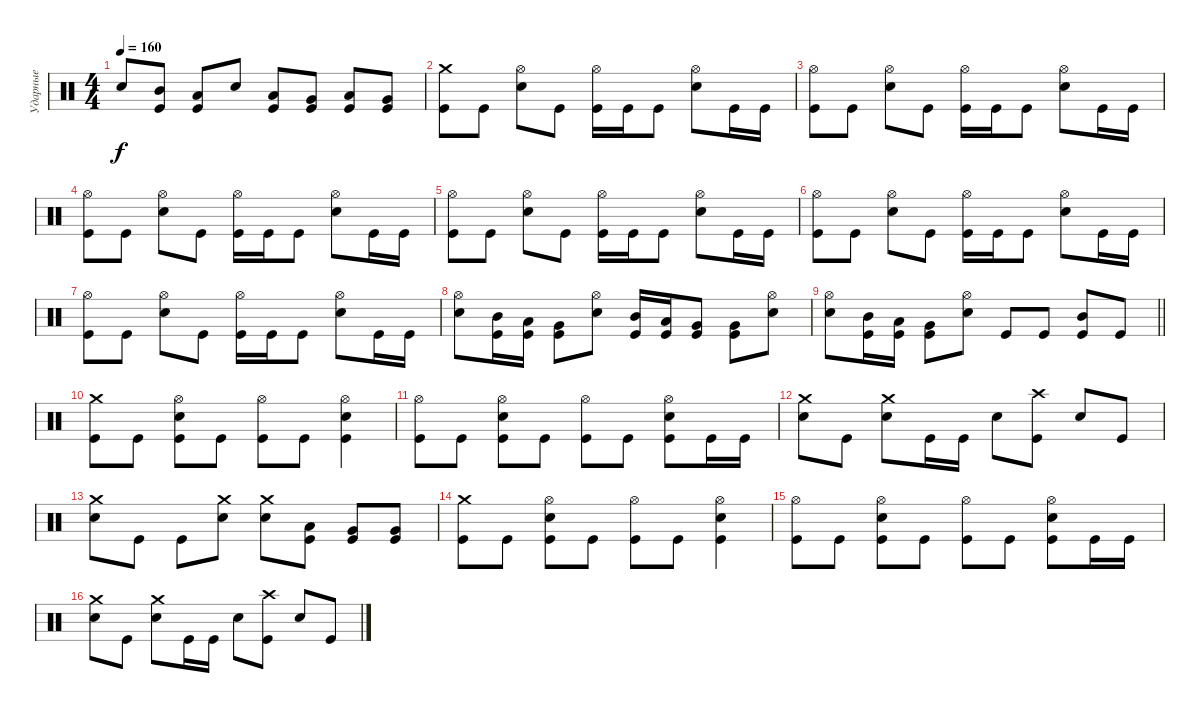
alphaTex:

\track ("Ударные" "Ударные") {instrument percussion}
\staff {score}
\articulation defaults
\ts (4 4)
\tempo 160
\clef neutral
\ks c "Snare (hit) 2".8{dy f}
("Kick (hit)" "Mid Tom (hit)").8 ("Kick (hit)" "Low Tom (hit)").8 "Snare (hit) 2".8 ("Kick (hit)" "Low Tom (hit)").8 ("Kick (hit)" "Very Low Tom (hit)").8 ("Kick (hit)" "Low Tom (hit)").8 ("Kick (hit)" "Very Low Tom (hit)").8 |
("Kick (hit)" "Crash medium (hit)").8 "Kick (hit)".8 ("Snare (hit) 2" "Hi-Hat (open)").8 "Kick (hit)".8 ("Kick (hit)" "Hi-Hat (open)").16 "Kick (hit)".16 "Kick (hit)".8 ("Snare (hit) 2" "Hi-Hat (open)").8 "Kick (hit)".16 "Kick (hit)".16 |
("Kick (hit)" "Hi-Hat (open)").8 "Kick (hit)".8 ("Snare (hit) 2" "Hi-Hat (open)").8 "Kick (hit)".8 ("Kick (hit)" "Hi-Hat (open)").16 "Kick (hit)".16 "Kick (hit)".8 ("Snare (hit) 2" "Hi-Hat (open)").8 "Kick (hit)".16 "Kick (hit)".16 |
("Kick (hit)" "Hi-Hat (open)").8 "Kick (hit)".8 ("Snare (hit) 2" "Hi-Hat (open)").8 "Kick (hit)".8 ("Kick (hit)" "Hi-Hat (open)").16 "Kick (hit)".16 "Kick (hit)".8 ("Snare (hit) 2" "Hi-Hat (open)").8 "Kick (hit)".16 "Kick (hit)".16 |
("Kick (hit)" "Hi-Hat (open)").8 "Kick (hit)".8 ("Snare (hit) 2" "Hi-Hat (open)").8 "Kick (hit)".8 ("Kick (hit)" "Hi-Hat (open)").16 "Kick (hit)".16 "Kick (hit)".8 ("Snare (hit) 2" "Hi-Hat (open)").8 "Kick (hit)".16 "Kick (hit)".16 |
("Kick (hit)" "Hi-Hat (open)").8 "Kick (hit)".8 ("Snare (hit) 2" "Hi-Hat (open)").8 "Kick (hit)".8 ("Kick (hit)" "Hi-Hat (open)").16 "Kick (hit)".16 "Kick (hit)".8 ("Snare (hit) 2" "Hi-Hat (open)").8 "Kick (hit)".16 "Kick (hit)".16 |
("Kick (hit)" "Hi-Hat (open)").8 "Kick (hit)".8 ("Snare (hit) 2" "Hi-Hat (open)").8 "Kick (hit)".8 ("Kick (hit)" "Hi-Hat (open)").16 "Kick (hit)".16 "Kick (hit)".8 ("Snare (hit) 2" "Hi-Hat (open)").8 "Kick (hit)".16 "Kick (hit)".16 |
("Snare (hit) 2" "Hi-Hat (open)").8 ("Kick (hit)" "Mid Tom (hit)").16 ("Kick (hit)" "Low Tom (hit)").16 ("Kick (hit)" "Very Low Tom (hit)").8 ("Snare (hit) 2" "Hi-Hat (open)").8 ("Kick (hit)" "Mid Tom (hit)").16 ("Kick (hit)" "Low Tom (hit)").16 ("Kick (hit)" "Very Low Tom (hit)").8 ("Kick (hit)" "Very Low Tom (hit)").8 ("Snare (hit) 2" "Hi-Hat (open)").8 |
\barLineRight lightlight
("Snare (hit) 2" "Hi-Hat (open)").8 ("Kick (hit)" "Mid Tom (hit)").16 ("Kick (hit)" "Low Tom (hit)").16 ("Kick (hit)" "Very Low Tom (hit)").8 ("Snare (hit) 2" "Hi-Hat (open)").8 "Kick (hit)".8 "Kick (hit)".8 ("Kick (hit)" "Mid Tom (hit)").8 "Kick (hit)".8 |
("Kick (hit)" "Crash medium (hit)").8 "Kick (hit)".8 ("Kick (hit)" "Snare (hit) 2" "Hi-Hat (open)").8 "Kick (hit)".8 ("Kick (hit)" "Hi-Hat (open)").8 "Kick (hit)".8 ("Kick (hit)" "Snare (hit) 2" "Hi-Hat (open)").4 |
("Kick (hit)" "Hi-Hat (open)").8 "Kick (hit)".8 ("Kick (hit)" "Snare (hit) 2" "Hi-Hat (open)").8 "Kick (hit)".8 ("Kick (hit)" "Hi-Hat (open)").8 "Kick (hit)".8 ("Kick (hit)" "Snare (hit) 2" "Hi-Hat (open)").8 "Kick (hit)".16 "Kick (hit)".16 |
("Snare (hit) 2" "Crash medium (hit)").8 "Kick (hit)".8 ("Snare (hit) 2" "Crash medium (hit)").8 "Kick (hit)".16 "Kick (hit)".16 "Snare (hit) 2".8 ("Kick (hit)" "Crash high (hit)").8 "Snare (hit) 2".8 "Kick (hit)".8 |
("Snare (hit) 2" "Crash medium (hit)").8 "Kick (hit)".8 "Kick (hit)".8 ("Snare (hit) 2" "Crash medium (hit)").8 ("Snare (hit) 2" "Crash medium (hit)").8 ("Kick (hit)" "Low Tom (hit)").8 ("Kick (hit)" "Very Low Tom (hit)").8 ("Kick (hit)" "Very Low Tom (hit)").8 |
("Kick (hit)" "Crash medium (hit)").8 "Kick (hit)".8 ("Kick (hit)" "Snare (hit) 2" "Hi-Hat (open)").8 "Kick (hit)".8 ("Kick (hit)" "Hi-Hat (open)").8 "Kick (hit)".8 ("Kick (hit)" "Snare (hit) 2" "Hi-Hat (open)").4 |
("Kick (hit)" "Hi-Hat (open)").8 "Kick (hit)".8 ("Kick (hit)" "Snare (hit) 2" "Hi-Hat (open)").8 "Kick (hit)".8 ("Kick (hit)" "Hi-Hat (open)").8 "Kick (hit)".8 ("Kick (hit)" "Snare (hit) 2" "Hi-Hat (open)").8 "Kick (hit)".16 "Kick (hit)".16 |
("Snare (hit) 2" "Crash medium (hit)").8 "Kick (hit)".8 ("Snare (hit) 2" "Crash medium (hit)").8 "Kick (hit)".16 "Kick (hit)".16 "Snare (hit) 2".8 ("Kick (hit)" "Crash high (hit)").8 "Snare (hit) 2".8 "Kick (hit)".8
